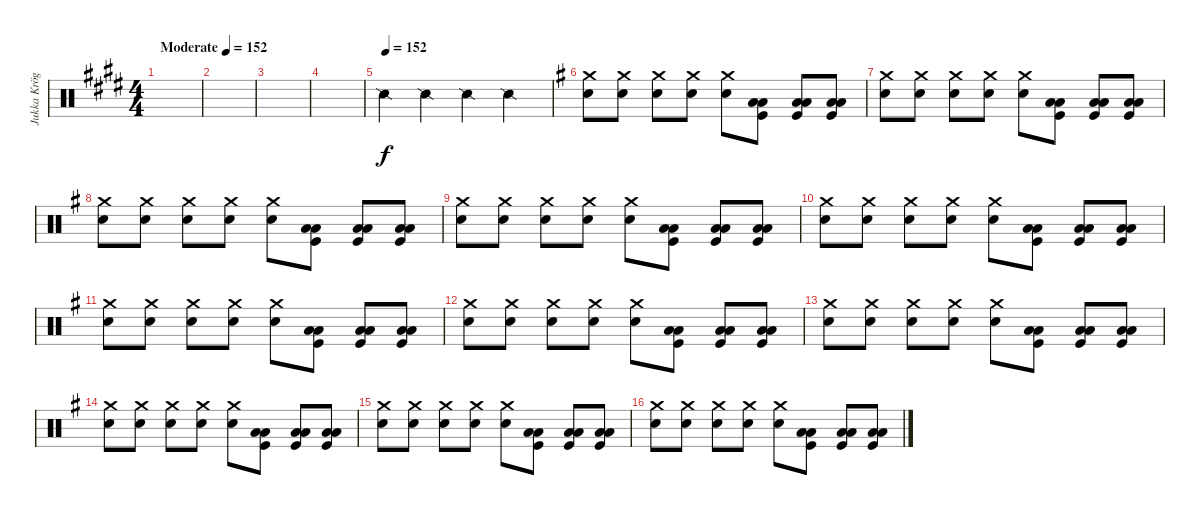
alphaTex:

\track ("Jukka Kröger" "Jukka Krög") {instrument percussion}
\staff {score}
\articulation defaults
\ts (4 4)
\tempo (152 "Moderate")
\tempo 113
\tempo (152 "Moderate")
\clef neutral
\ks e
|
|
|
|
\tempo (152)
"Snare (side stick) 2".4 "Snare (side stick) 2".4 "Snare (side stick) 2".4 "Snare (side stick) 2".4 |
\ks eminor
("Crash medium (hit)" "Snare (hit) 2").8 ("Crash medium (hit)" "Snare (hit) 2").8 ("Crash medium (hit)" "Snare (hit) 2").8 ("Crash medium (hit)" "Snare (hit) 2").8 ("Crash medium (hit)" "Snare (hit) 2").8 ("Kick (hit)" "Low Tom (hit)" "Low Floor Tom (hit)").8 ("Kick (hit)" "Low Tom (hit)" "Low Floor Tom (hit)").8 ("Kick (hit)" "Low Tom (hit)" "Low Floor Tom (hit)").8 |
("Crash medium (hit)" "Snare (hit) 2").8 ("Crash medium (hit)" "Snare (hit) 2").8 ("Crash medium (hit)" "Snare (hit) 2").8 ("Crash medium (hit)" "Snare (hit) 2").8 ("Crash medium (hit)" "Snare (hit) 2").8 ("Kick (hit)" "Low Tom (hit)" "Low Floor Tom (hit)").8 ("Kick (hit)" "Low Tom (hit)" "Low Floor Tom (hit)").8 ("Kick (hit)" "Low Tom (hit)" "Low Floor Tom (hit)").8 |
("Crash medium (hit)" "Snare (hit) 2").8 ("Crash medium (hit)" "Snare (hit) 2").8 ("Crash medium (hit)" "Snare (hit) 2").8 ("Crash medium (hit)" "Snare (hit) 2").8 ("Crash medium (hit)" "Snare (hit) 2").8 ("Kick (hit)" "Low Tom (hit)" "Low Floor Tom (hit)").8 ("Kick (hit)" "Low Tom (hit)" "Low Floor Tom (hit)").8 ("Kick (hit)" "Low Tom (hit)" "Low Floor Tom (hit)").8 |
("Crash medium (hit)" "Snare (hit) 2").8 ("Crash medium (hit)" "Snare (hit) 2").8 ("Crash medium (hit)" "Snare (hit) 2").8 ("Crash medium (hit)" "Snare (hit) 2").8 ("Crash medium (hit)" "Snare (hit) 2").8 ("Kick (hit)" "Low Tom (hit)" "Low Floor Tom (hit)").8 ("Kick (hit)" "Low Tom (hit)" "Low Floor Tom (hit)").8 ("Kick (hit)" "Low Tom (hit)" "Low Floor Tom (hit)").8 |
("Crash medium (hit)" "Snare (hit) 2").8 ("Crash medium (hit)" "Snare (hit) 2").8 ("Crash medium (hit)" "Snare (hit) 2").8 ("Crash medium (hit)" "Snare (hit) 2").8 ("Crash medium (hit)" "Snare (hit) 2").8 ("Kick (hit)" "Low Tom (hit)" "Low Floor Tom (hit)").8 ("Kick (hit)" "Low Tom (hit)" "Low Floor Tom (hit)").8 ("Kick (hit)" "Low Tom (hit)" "Low Floor Tom (hit)").8 |
("Crash medium (hit)" "Snare (hit) 2").8 ("Crash medium (hit)" "Snare (hit) 2").8 ("Crash medium (hit)" "Snare (hit) 2").8 ("Crash medium (hit)" "Snare (hit) 2").8 ("Crash medium (hit)" "Snare (hit) 2").8 ("Kick (hit)" "Low Tom (hit)" "Low Floor Tom (hit)").8 ("Kick (hit)" "Low Tom (hit)" "Low Floor Tom (hit)").8 ("Kick (hit)" "Low Tom (hit)" "Low Floor Tom (hit)").8 |
("Crash medium (hit)" "Snare (hit) 2").8 ("Crash medium (hit)" "Snare (hit) 2").8 ("Crash medium (hit)" "Snare (hit) 2").8 ("Crash medium (hit)" "Snare (hit) 2").8 ("Crash medium (hit)" "Snare (hit) 2").8 ("Kick (hit)" "Low Tom (hit)" "Low Floor Tom (hit)").8 ("Kick (hit)" "Low Tom (hit)" "Low Floor Tom (hit)").8 ("Kick (hit)" "Low Tom (hit)" "Low Floor Tom (hit)").8 |
("Crash medium (hit)" "Snare (hit) 2").8 ("Crash medium (hit)" "Snare (hit) 2").8 ("Crash medium (hit)" "Snare (hit) 2").8 ("Crash medium (hit)" "Snare (hit) 2").8 ("Crash medium (hit)" "Snare (hit) 2").8 ("Kick (hit)" "Low Tom (hit)" "Low Floor Tom (hit)").8 ("Kick (hit)" "Low Tom (hit)" "Low Floor Tom (hit)").8 ("Kick (hit)" "Low Tom (hit)" "Low Floor Tom (hit)").8 |
("Crash medium (hit)" "Snare (hit) 2").8 ("Crash medium (hit)" "Snare (hit) 2").8 ("Crash medium (hit)" "Snare (hit) 2").8 ("Crash medium (hit)" "Snare (hit) 2").8 ("Crash medium (hit)" "Snare (hit) 2").8 ("Kick (hit)" "Low Tom (hit)" "Low Floor Tom (hit)").8 ("Kick (hit)" "Low Tom (hit)" "Low Floor Tom (hit)").8 ("Kick (hit)" "Low Tom (hit)" "Low Floor Tom (hit)").8 |
("Crash medium (hit)" "Snare (hit) 2").8 ("Crash medium (hit)" "Snare (hit) 2").8 ("Crash medium (hit)" "Snare (hit) 2").8 ("Crash medium (hit)" "Snare (hit) 2").8 ("Crash medium (hit)" "Snare (hit) 2").8 ("Kick (hit)" "Low Tom (hit)" "Low Floor Tom (hit)").8 ("Kick (hit)" "Low Tom (hit)" "Low Floor Tom (hit)").8 ("Kick (hit)" "Low Tom (hit)" "Low Floor Tom (hit)").8 |
("Crash medium (hit)" "Snare (hit) 2").8 ("Crash medium (hit)" "Snare (hit) 2").8 ("Crash medium (hit)" "Snare (hit) 2").8 ("Crash medium (hit)" "Snare (hit) 2").8 ("Crash medium (hit)" "Snare (hit) 2").8 ("Kick (hit)" "Low Tom (hit)" "Low Floor Tom (hit)").8 ("Kick (hit)" "Low Tom (hit)" "Low Floor Tom (hit)").8 ("Kick (hit)" "Low Tom (hit)" "Low Floor Tom (hit)").8
